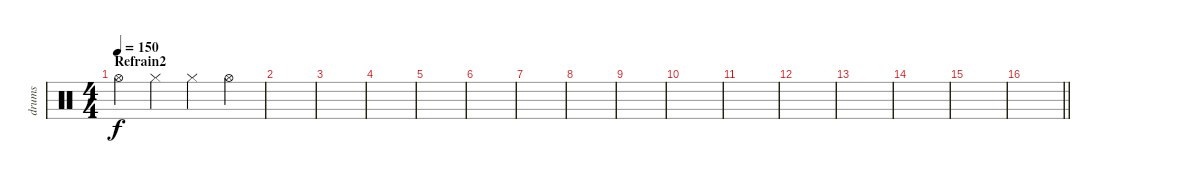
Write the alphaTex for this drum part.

\track ("drums" "drums") {instrument percussion}
\staff {score}
\articulation defaults
\ts (4 4)
\section ("" "Refrain2")
\tempo 150
\clef neutral
\ks c "Hi-Hat (open)".4{dy f} "Hi-Hat (closed)".4 "Hi-Hat (closed)".4 "Hi-Hat (open)".4
|
|
|
|
|
|
|
|
|
|
|
|
|
|
|
\barLineRight lightlight
